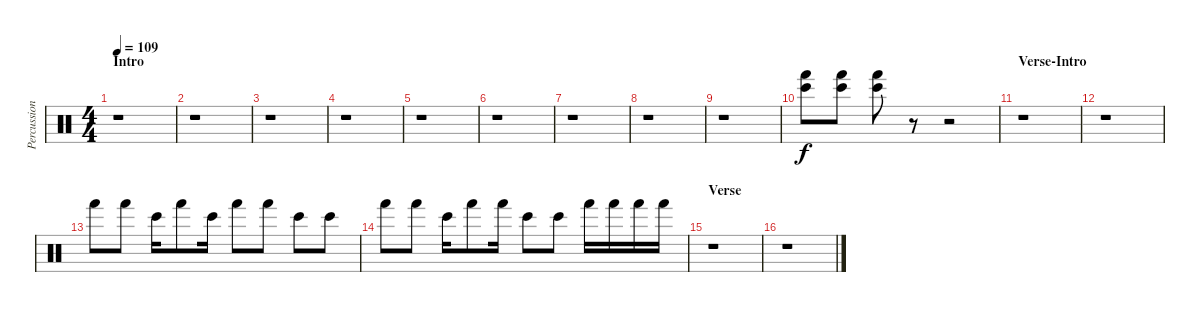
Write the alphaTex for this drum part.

\track ("Percussions" "Percussion") {instrument percussion}
\staff {score}
\articulation defaults
\ts (4 4)
\section ("" "Intro")
\tempo 109
\clef neutral
\ks c
r.1{dy f} |
r.1 |
r.1 |
r.1 |
r.1 |
r.1 |
r.1 |
r.1 |
r.1 |
("Bongo High (hit)" "Hand (hit)").8 ("Bongo High (hit)" "Hand (hit)").8 ("Bongo High (hit)" "Hand (hit)").8 r.8 r.2 |
\section ("" "Verse-Intro")
r.1 |
r.1 |
"Hand (hit)".8 "Hand (hit)".8 "Bongo High (hit)".16 "Hand (hit)".8 "Bongo High (hit)".16 "Hand (hit)".8 "Hand (hit)".8 "Bongo High (hit)".8 "Bongo High (hit)".8 |
"Hand (hit)".8 "Hand (hit)".8 "Bongo High (hit)".16 "Hand (hit)".8 "Hand (hit)".16 "Bongo High (hit)".8 "Bongo High (hit)".8 "Hand (hit)".16 "Hand (hit)".16 "Hand (hit)".16 "Hand (hit)".16 |
\section ("" "Verse")
r.1 |
r.1
